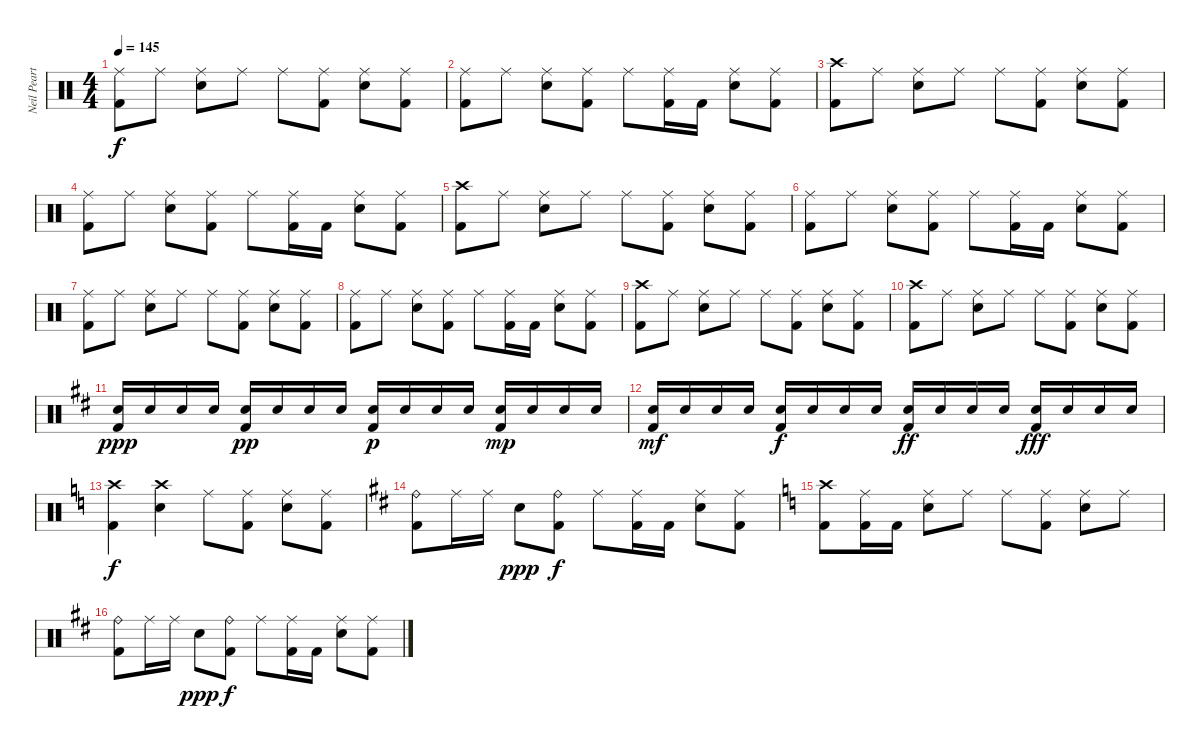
\track ("Neil Peart" "Neil Peart") {instrument percussion}
\staff {score}
\articulation defaults
\ts (4 4)
\tempo 145
\clef neutral
\ks c
("Ride (middle)" "Kick (hit) 2").8{dy f} "Ride (middle)".8 ("Ride (middle)" "Snare (hit) 2").8 "Ride (middle)".8 "Ride (middle)".8 ("Ride (middle)" "Kick (hit) 2").8 ("Ride (middle)" "Snare (hit) 2").8 ("Ride (middle)" "Kick (hit) 2").8 |
("Ride (middle)" "Kick (hit) 2").8 "Ride (middle)".8 ("Ride (middle)" "Snare (hit) 2").8 ("Ride (middle)" "Kick (hit) 2").8 "Ride (middle)".8 ("Ride (middle)" "Kick (hit) 2").16 "Kick (hit) 2".16 ("Ride (middle)" "Snare (hit) 2").8 ("Ride (middle)" "Kick (hit) 2").8 |
("Crash high (hit)" "Kick (hit) 2").8 "Ride (middle)".8 ("Ride (middle)" "Snare (hit) 2").8 "Ride (middle)".8 "Ride (middle)".8 ("Ride (middle)" "Kick (hit) 2").8 ("Ride (middle)" "Snare (hit) 2").8 ("Ride (middle)" "Kick (hit) 2").8 |
("Ride (middle)" "Kick (hit) 2").8 "Ride (middle)".8 ("Ride (middle)" "Snare (hit) 2").8 ("Ride (middle)" "Kick (hit) 2").8 "Ride (middle)".8 ("Ride (middle)" "Kick (hit) 2").16 "Kick (hit) 2".16 ("Ride (middle)" "Snare (hit) 2").8 ("Ride (middle)" "Kick (hit) 2").8 |
("Crash high (hit)" "Kick (hit) 2").8 "Ride (middle)".8 ("Ride (middle)" "Snare (hit) 2").8 "Ride (middle)".8 "Ride (middle)".8 ("Ride (middle)" "Kick (hit) 2").8 ("Ride (middle)" "Snare (hit) 2").8 ("Ride (middle)" "Kick (hit) 2").8 |
("Ride (middle)" "Kick (hit) 2").8 "Ride (middle)".8 ("Ride (middle)" "Snare (hit) 2").8 ("Ride (middle)" "Kick (hit) 2").8 "Ride (middle)".8 ("Ride (middle)" "Kick (hit) 2").16 "Kick (hit) 2".16 ("Ride (middle)" "Snare (hit) 2").8 ("Ride (middle)" "Kick (hit) 2").8 |
("Ride (middle)" "Kick (hit) 2").8 "Ride (middle)".8 ("Ride (middle)" "Snare (hit) 2").8 "Ride (middle)".8 "Ride (middle)".8 ("Ride (middle)" "Kick (hit) 2").8 ("Ride (middle)" "Snare (hit) 2").8 ("Ride (middle)" "Kick (hit) 2").8 |
("Ride (middle)" "Kick (hit) 2").8 "Ride (middle)".8 ("Ride (middle)" "Snare (hit) 2").8 ("Ride (middle)" "Kick (hit) 2").8 "Ride (middle)".8 ("Ride (middle)" "Kick (hit) 2").16 "Kick (hit) 2".16 ("Ride (middle)" "Snare (hit) 2").8 ("Ride (middle)" "Kick (hit) 2").8 |
("Crash high (hit)" "Kick (hit) 2").8 "Ride (middle)".8 ("Ride (middle)" "Snare (hit) 2").8 "Ride (middle)".8 "Ride (middle)".8 ("Ride (middle)" "Kick (hit) 2").8 ("Ride (middle)" "Snare (hit) 2").8 ("Ride (middle)" "Kick (hit) 2").8 |
("Crash high (hit)" "Kick (hit) 2").8 "Ride (middle)".8 ("Ride (middle)" "Snare (hit) 2").8 "Ride (middle)".8 "Ride (middle)".8 ("Ride (middle)" "Kick (hit) 2").8 ("Ride (middle)" "Snare (hit) 2").8 ("Ride (middle)" "Kick (hit) 2").8 |
\ks d
("Snare (hit) 2" "Kick (hit) 2").16{dy ppp} "Snare (hit) 2".16 "Snare (hit) 2".16 "Snare (hit) 2".16 ("Snare (hit) 2" "Kick (hit) 2").16{dy pp} "Snare (hit) 2".16 "Snare (hit) 2".16 "Snare (hit) 2".16 ("Snare (hit) 2" "Kick (hit) 2").16{dy p} "Snare (hit) 2".16 "Snare (hit) 2".16 "Snare (hit) 2".16 ("Snare (hit) 2" "Kick (hit) 2").16{dy mp} "Snare (hit) 2".16 "Snare (hit) 2".16 "Snare (hit) 2".16 |
("Snare (hit) 2" "Kick (hit) 2").16{dy mf} "Snare (hit) 2".16 "Snare (hit) 2".16 "Snare (hit) 2".16 ("Snare (hit) 2" "Kick (hit) 2").16{dy f} "Snare (hit) 2".16 "Snare (hit) 2".16 "Snare (hit) 2".16 ("Snare (hit) 2" "Kick (hit) 2").16{dy ff} "Snare (hit) 2".16 "Snare (hit) 2".16 "Snare (hit) 2".16 ("Snare (hit) 2" "Kick (hit) 2").16{dy fff} "Snare (hit) 2".16 "Snare (hit) 2".16 "Snare (hit) 2".16 |
\ks c
("Crash high (hit)" "Kick (hit) 2").4{dy f} ("Crash high (hit)" "Snare (hit) 2").4 "Ride (middle)".8 ("Ride (middle)" "Kick (hit) 2").8 ("Ride (middle)" "Snare (hit) 2").8 ("Ride (middle)" "Kick (hit) 2").8 |
\ks d
("Ride (bell)" "Kick (hit) 2").8 "Ride (middle)".16 "Ride (middle)".16 "Snare (hit) 2".8{dy ppp} ("Ride (bell)" "Kick (hit) 2").8{dy f} "Ride (middle)".8 ("Ride (middle)" "Kick (hit) 2").16 "Kick (hit) 2".16 ("Ride (middle)" "Snare (hit) 2").8 ("Ride (middle)" "Kick (hit) 2").8 |
\ks c
("Crash high (hit)" "Kick (hit) 2").8 ("Ride (middle)" "Kick (hit) 2").16 "Kick (hit) 2".16 ("Ride (middle)" "Snare (hit) 2").8 "Ride (middle)".8 "Ride (middle)".8 ("Ride (middle)" "Kick (hit) 2").8 ("Ride (middle)" "Snare (hit) 2").8 "Ride (middle)".8 |
\ks d
("Ride (bell)" "Kick (hit) 2").8 "Ride (middle)".16 "Ride (middle)".16 "Snare (hit) 2".8{dy ppp} ("Ride (bell)" "Kick (hit) 2").8{dy f} "Ride (middle)".8 ("Ride (middle)" "Kick (hit) 2").16 "Kick (hit) 2".16 ("Ride (middle)" "Snare (hit) 2").8 ("Ride (middle)" "Kick (hit) 2").8
